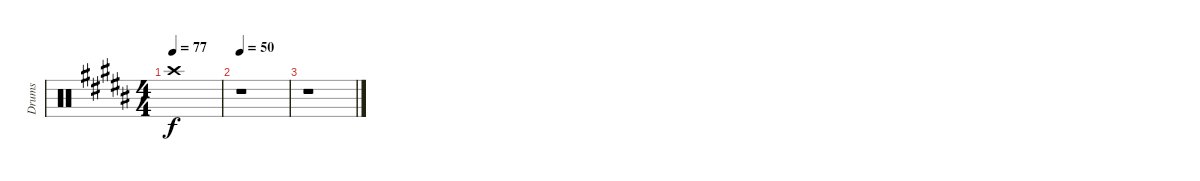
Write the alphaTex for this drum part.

\track ("Drums" "Drums") {instrument percussion}
\staff {score}
\articulation defaults
\ts (4 4)
\tempo 77
\clef neutral
\ks g#minor "Crash high (hit)".1{dy f}
|
\tempo 50
r.1 |
r.1
